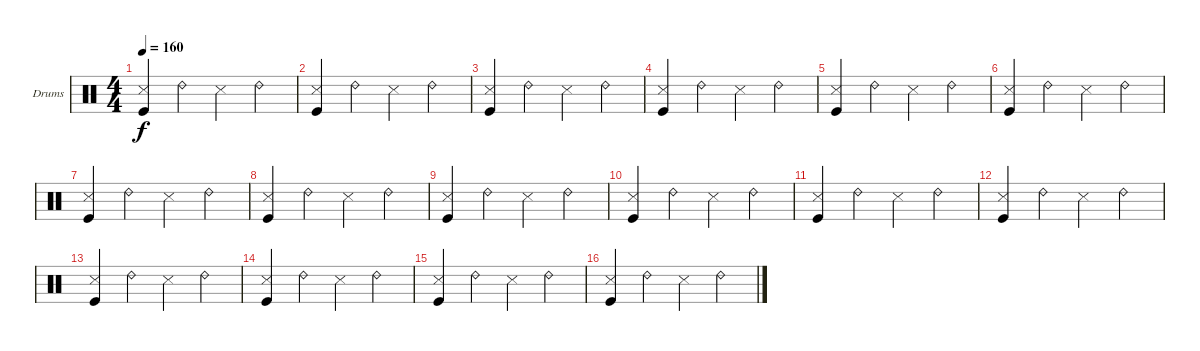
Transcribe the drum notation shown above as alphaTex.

\bracketExtendMode nobrackets
\firstSystemTrackNameOrientation horizontal
\otherSystemsTrackNameOrientation horizontal
\track ("Drumkit" "Drums") {instrument percussion}
\staff {score}
\articulation defaults
\ts (4 4)
\tempo 160
\clef neutral
\ks c
("Snare (side stick) 3" "Kick (hit)").4{dy f} "Ride (bell) 2".4 "Snare (side stick) 3".4 "Ride (bell) 2".4 |
("Snare (side stick) 3" "Kick (hit)").4 "Ride (bell) 2".4 "Snare (side stick) 3".4 "Ride (bell) 2".4 |
("Snare (side stick) 3" "Kick (hit)").4 "Ride (bell) 2".4 "Snare (side stick) 3".4 "Ride (bell) 2".4 |
("Snare (side stick) 3" "Kick (hit)").4 "Ride (bell) 2".4 "Snare (side stick) 3".4 "Ride (bell) 2".4 |
("Snare (side stick) 3" "Kick (hit)").4 "Ride (bell) 2".4 "Snare (side stick) 3".4 "Ride (bell) 2".4 |
("Snare (side stick) 3" "Kick (hit)").4 "Ride (bell) 2".4 "Snare (side stick) 3".4 "Ride (bell) 2".4 |
("Snare (side stick) 3" "Kick (hit)").4 "Ride (bell) 2".4 "Snare (side stick) 3".4 "Ride (bell) 2".4 |
("Snare (side stick) 3" "Kick (hit)").4 "Ride (bell) 2".4 "Snare (side stick) 3".4 "Ride (bell) 2".4 |
("Snare (side stick) 3" "Kick (hit)").4 "Ride (bell) 2".4 "Snare (side stick) 3".4 "Ride (bell) 2".4 |
("Snare (side stick) 3" "Kick (hit)").4 "Ride (bell) 2".4 "Snare (side stick) 3".4 "Ride (bell) 2".4 |
("Snare (side stick) 3" "Kick (hit)").4 "Ride (bell) 2".4 "Snare (side stick) 3".4 "Ride (bell) 2".4 |
("Snare (side stick) 3" "Kick (hit)").4 "Ride (bell) 2".4 "Snare (side stick) 3".4 "Ride (bell) 2".4 |
("Snare (side stick) 3" "Kick (hit)").4 "Ride (bell) 2".4 "Snare (side stick) 3".4 "Ride (bell) 2".4 |
("Snare (side stick) 3" "Kick (hit)").4 "Ride (bell) 2".4 "Snare (side stick) 3".4 "Ride (bell) 2".4 |
("Snare (side stick) 3" "Kick (hit)").4 "Ride (bell) 2".4 "Snare (side stick) 3".4 "Ride (bell) 2".4 |
("Snare (side stick) 3" "Kick (hit)").4 "Ride (bell) 2".4 "Snare (side stick) 3".4 "Ride (bell) 2".4
